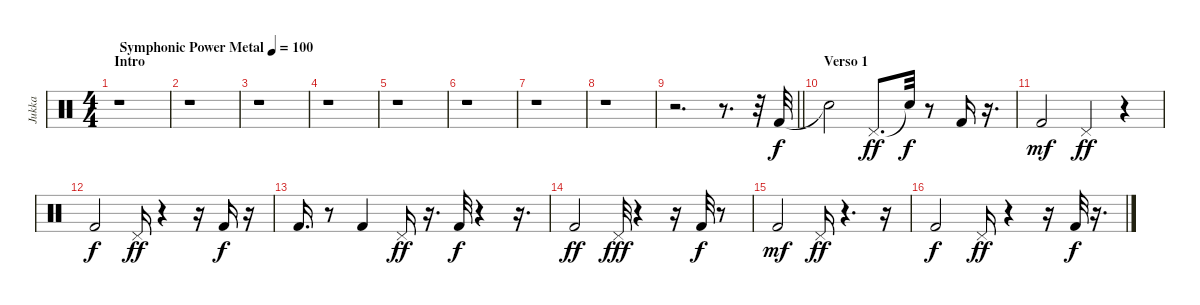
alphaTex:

\track ("Jukka" "Jukka") {instrument percussion}
\staff {score}
\articulation defaults
\ts (4 4)
\section ("" "Intro")
\tempo (100 "Symphonic Power Metal")
\clef neutral
\ks c
r.1{dy f} |
r.1 |
r.1 |
r.1 |
r.1 |
r.1 |
r.1 |
r.1 |
\barLineRight lightlight
r.2{d} r.8{d} r.32 "Kick (hit) 2".32 |
\section ("" "Verso 1")
"Snare (hit)"{t}.2 "Pedal Hi-Hat (hit)".8{d dy ff} "Snare (hit)"{t}.32{dy f} r.8 "Kick (hit) 2".16 r.16{d} |
"Kick (hit) 2".2{dy mf} "Pedal Hi-Hat (hit)".4{dy ff} r.4 |
"Kick (hit) 2".2{dy f} "Pedal Hi-Hat (hit)".16{dy ff} r.4 r.16 "Kick (hit) 2".16{dy f} r.16 |
"Kick (hit) 2".16{d} r.8 "Kick (hit) 2".4 "Pedal Hi-Hat (hit)".16{dy ff} r.16{d} "Kick (hit) 2".32{dy f} r.4 r.16{d} |
"Kick (hit) 2".2{dy ff} "Pedal Hi-Hat (hit)".32{dy fff} r.4 r.16 "Kick (hit) 2".32{dy f} r.8 |
"Kick (hit) 2".2{dy mf} "Pedal Hi-Hat (hit)".16{dy ff} r.4{d} r.16 |
"Kick (hit) 2".2{dy f} "Pedal Hi-Hat (hit)".16{dy ff} r.4 r.16 "Kick (hit) 2".32{dy f} r.16{d}
